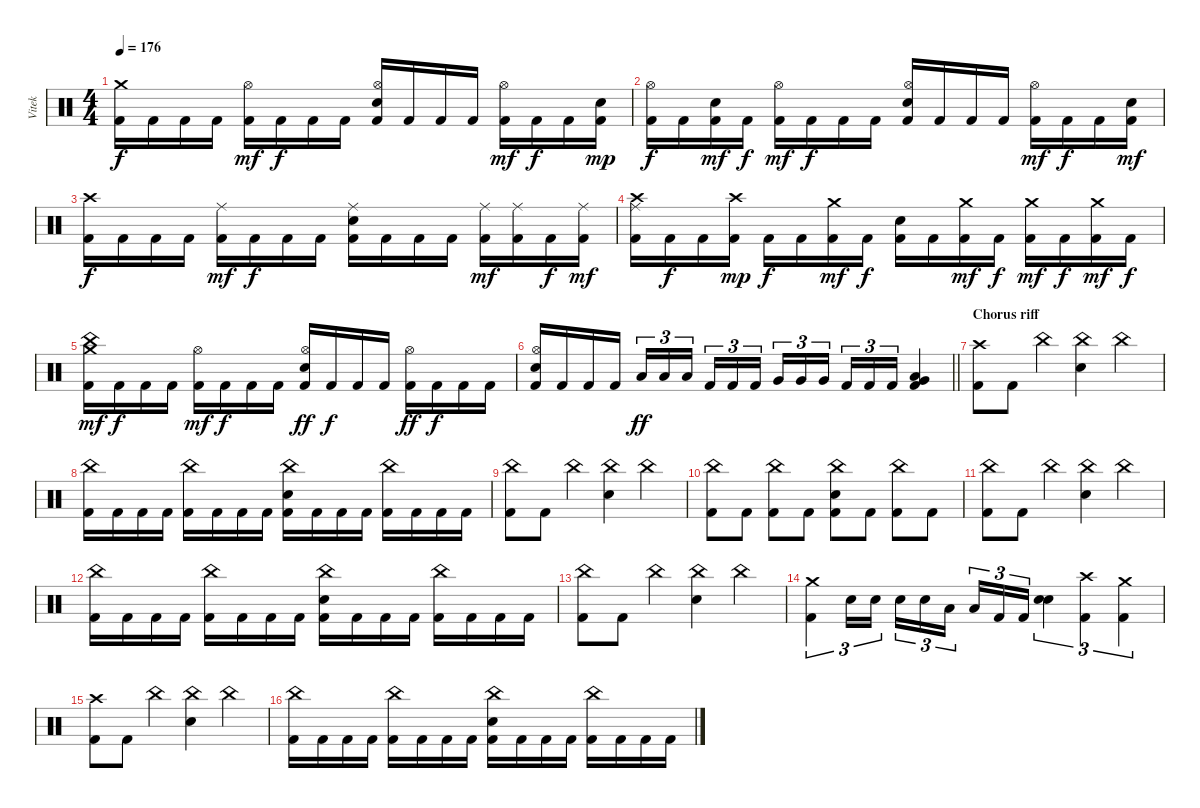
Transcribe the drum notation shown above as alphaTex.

\track ("Vitek" "Vitek") {instrument percussion}
\staff {score}
\articulation defaults
\ts (4 4)
\tempo 176
\clef neutral
\ks c
("Crash medium (hit)" "Kick (hit) 2").16{dy f} "Kick (hit) 2".16 "Kick (hit) 2".16 "Kick (hit) 2".16 ("Hi-Hat (open)" "Kick (hit) 2").16{dy mf} "Kick (hit) 2".16{dy f} "Kick (hit) 2".16 "Kick (hit) 2".16 ("Hi-Hat (open)" "Electric Snare (hit)" "Kick (hit) 2").16 "Kick (hit) 2".16 "Kick (hit) 2".16 "Kick (hit) 2".16 ("Hi-Hat (open)" "Kick (hit) 2").16{dy mf} "Kick (hit) 2".16{dy f} "Kick (hit) 2".16 ("Electric Snare (hit)" "Kick (hit) 2").16{dy mp} |
("Hi-Hat (open)" "Kick (hit) 2").16{dy f} "Kick (hit) 2".16 ("Electric Snare (hit)" "Kick (hit) 2").16{dy mf} "Kick (hit) 2".16{dy f} ("Hi-Hat (open)" "Kick (hit) 2").16{dy mf} "Kick (hit) 2".16{dy f} "Kick (hit) 2".16 "Kick (hit) 2".16 ("Hi-Hat (open)" "Electric Snare (hit)" "Kick (hit) 2").16 "Kick (hit) 2".16 "Kick (hit) 2".16 "Kick (hit) 2".16 ("Hi-Hat (open)" "Kick (hit) 2").16{dy mf} "Kick (hit) 2".16{dy f} "Kick (hit) 2".16 ("Electric Snare (hit)" "Kick (hit) 2").16{dy mf} |
("Crash high (hit)" "Kick (hit) 2").16{dy f} "Kick (hit) 2".16 "Kick (hit) 2".16 "Kick (hit) 2".16 ("Ride (middle)" "Kick (hit) 2").16{dy mf} "Kick (hit) 2".16{dy f} "Kick (hit) 2".16 "Kick (hit) 2".16 ("Ride (middle)" "Electric Snare (hit)" "Kick (hit) 2").16 "Kick (hit) 2".16 "Kick (hit) 2".16 "Kick (hit) 2".16 ("Ride (middle)" "Kick (hit) 2").16{dy mf} ("Ride (middle)" "Kick (hit) 2").16 "Kick (hit) 2".16{dy f} ("Ride (middle)" "Kick (hit) 2").16{dy mf} |
("Crash high (hit)" "Ride (middle)" "Kick (hit) 2").16 "Kick (hit) 2".16{dy f} "Kick (hit) 2".16 ("Crash high (hit)" "Kick (hit) 2").16{dy mp} "Kick (hit) 2".16{dy f} "Kick (hit) 2".16 ("Crash medium (hit)" "Kick (hit) 2").16{dy mf} "Kick (hit) 2".16{dy f} ("Electric Snare (hit)" "Kick (hit) 2").16 "Kick (hit) 2".16 ("Crash medium (hit)" "Kick (hit) 2").16{dy mf} "Kick (hit) 2".16{dy f} ("Crash medium (hit)" "Kick (hit) 2").16{dy mf} "Kick (hit) 2".16{dy f} ("Crash medium (hit)" "Kick (hit) 2").16{dy mf} "Kick (hit) 2".16{dy f} |
("China (hit)" "Crash medium (hit)" "Kick (hit) 2").16{dy mf} "Kick (hit) 2".16{dy f} "Kick (hit) 2".16 "Kick (hit) 2".16 ("Hi-Hat (open)" "Kick (hit) 2").16{dy mf} "Kick (hit) 2".16{dy f} "Kick (hit) 2".16 "Kick (hit) 2".16 ("Hi-Hat (open)" "Electric Snare (hit)" "Kick (hit) 2").16{dy ff} "Kick (hit) 2".16{dy f} "Kick (hit) 2".16 "Kick (hit) 2".16 ("Hi-Hat (open)" "Kick (hit) 2").16{dy ff} "Kick (hit) 2".16{dy f} "Kick (hit) 2".16 "Kick (hit) 2".16 |
\barLineRight lightlight
("Hi-Hat (open)" "Electric Snare (hit)" "Kick (hit) 2").16 "Kick (hit) 2".16 "Kick (hit) 2".16 "Kick (hit) 2".16 "Low Tom (hit)".16{tu (3 2) dy ff} "Low Tom (hit)".16{tu (3 2)} "Low Tom (hit)".16{tu (3 2) beam splitsecondary} "Kick (hit) 2".16{tu (3 2)} "Kick (hit) 2".16{tu (3 2)} "Kick (hit) 2".16{tu (3 2)} "Very Low Tom (hit)".16{tu (3 2)} "Very Low Tom (hit)".16{tu (3 2)} "Very Low Tom (hit)".16{tu (3 2) beam splitsecondary} "Kick (hit) 2".16{tu (3 2)} "Kick (hit) 2".16{tu (3 2)} "Kick (hit) 2".16{tu (3 2)} ("Very Low Tom (hit)" "Low Floor Tom (hit)" "Kick (hit) 2").4 |
\section ("" "Chorus riff")
("Crash high (hit)" "Kick (hit) 2").8 "Kick (hit) 2".8 "China (hit)".4 ("China (hit)" "Electric Snare (hit)").4 "China (hit)".4 |
("China (hit)" "Kick (hit) 2").16 "Kick (hit) 2".16 "Kick (hit) 2".16 "Kick (hit) 2".16 ("China (hit)" "Kick (hit) 2").16 "Kick (hit) 2".16 "Kick (hit) 2".16 "Kick (hit) 2".16 ("China (hit)" "Electric Snare (hit)" "Kick (hit) 2").16 "Kick (hit) 2".16 "Kick (hit) 2".16 "Kick (hit) 2".16 ("China (hit)" "Kick (hit) 2").16 "Kick (hit) 2".16 "Kick (hit) 2".16 "Kick (hit) 2".16 |
("China (hit)" "Kick (hit) 2").8 "Kick (hit) 2".8 "China (hit)".4 ("China (hit)" "Electric Snare (hit)").4 "China (hit)".4 |
("China (hit)" "Kick (hit) 2").8 "Kick (hit) 2".8 ("China (hit)" "Kick (hit) 2").8 "Kick (hit) 2".8 ("China (hit)" "Electric Snare (hit)" "Kick (hit) 2").8 "Kick (hit) 2".8 ("China (hit)" "Kick (hit) 2").8 "Kick (hit) 2".8 |
("China (hit)" "Kick (hit) 2").8 "Kick (hit) 2".8 "China (hit)".4 ("China (hit)" "Electric Snare (hit)").4 "China (hit)".4 |
("China (hit)" "Kick (hit) 2").16 "Kick (hit) 2".16 "Kick (hit) 2".16 "Kick (hit) 2".16 ("China (hit)" "Kick (hit) 2").16 "Kick (hit) 2".16 "Kick (hit) 2".16 "Kick (hit) 2".16 ("China (hit)" "Electric Snare (hit)" "Kick (hit) 2").16 "Kick (hit) 2".16 "Kick (hit) 2".16 "Kick (hit) 2".16 ("China (hit)" "Kick (hit) 2").16 "Kick (hit) 2".16 "Kick (hit) 2".16 "Kick (hit) 2".16 |
("China (hit)" "Kick (hit) 2").8 "Kick (hit) 2".8 "China (hit)".4 ("China (hit)" "Electric Snare (hit)").4 "China (hit)".4 |
("Crash medium (hit)" "Kick (hit) 2").4{tu (3 2)} "Electric Snare (hit)".16{tu (3 2)} "Electric Snare (hit)".16{tu (3 2)} "Electric Snare (hit)".16{tu (3 2)} "Electric Snare (hit)".16{tu (3 2)} "Low Tom (hit)".16{tu (3 2) beam splitsecondary} "Low Tom (hit)".16{tu (3 2)} "Kick (hit) 2".16{tu (3 2)} "Kick (hit) 2".16{tu (3 2)} ("Electric Snare (hit)" "Electric Snare (hit)").4{tu (3 2)} ("Crash high (hit)" "Kick (hit) 2").4{tu (3 2)} ("Crash medium (hit)" "Kick (hit) 2").4{tu (3 2)} |
("Crash high (hit)" "Kick (hit) 2").8 "Kick (hit) 2".8 "China (hit)".4 ("China (hit)" "Electric Snare (hit)").4 "China (hit)".4 |
("China (hit)" "Kick (hit) 2").16 "Kick (hit) 2".16 "Kick (hit) 2".16 "Kick (hit) 2".16 ("China (hit)" "Kick (hit) 2").16 "Kick (hit) 2".16 "Kick (hit) 2".16 "Kick (hit) 2".16 ("China (hit)" "Electric Snare (hit)" "Kick (hit) 2").16 "Kick (hit) 2".16 "Kick (hit) 2".16 "Kick (hit) 2".16 ("China (hit)" "Kick (hit) 2").16 "Kick (hit) 2".16 "Kick (hit) 2".16 "Kick (hit) 2".16
